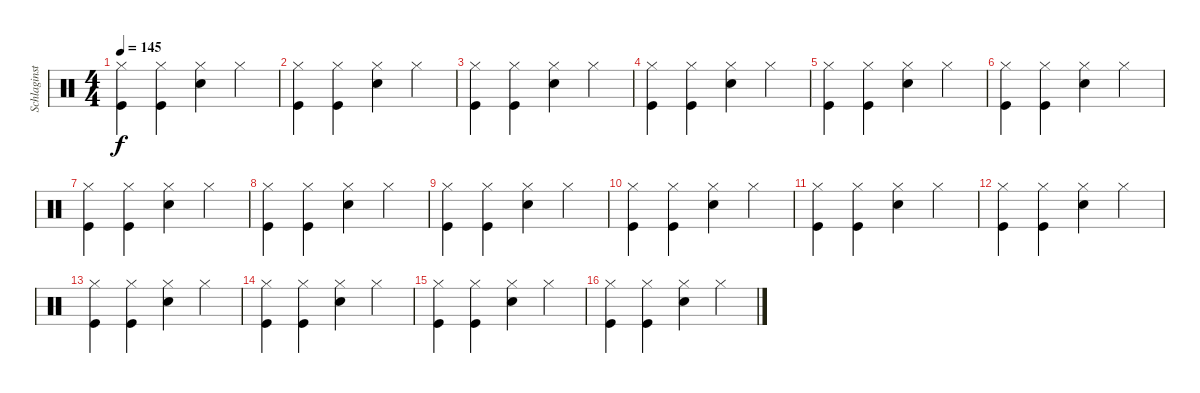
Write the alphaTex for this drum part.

\track ("Schlaginstrumente - Auswahl" "Schlaginst") {instrument percussion}
\staff {score}
\articulation defaults
\ts (4 4)
\tempo 145
\clef neutral
\ks c
("Kick (hit)" "Hi-Hat (closed)").4{dy f} ("Kick (hit)" "Hi-Hat (closed)").4 ("Snare (hit) 2" "Hi-Hat (closed)").4 "Hi-Hat (closed)".4 |
("Kick (hit)" "Hi-Hat (closed)").4 ("Kick (hit)" "Hi-Hat (closed)").4 ("Snare (hit) 2" "Hi-Hat (closed)").4 "Hi-Hat (closed)".4 |
("Kick (hit)" "Hi-Hat (closed)").4 ("Kick (hit)" "Hi-Hat (closed)").4 ("Snare (hit) 2" "Hi-Hat (closed)").4 "Hi-Hat (closed)".4 |
("Kick (hit)" "Hi-Hat (closed)").4 ("Kick (hit)" "Hi-Hat (closed)").4 ("Snare (hit) 2" "Hi-Hat (closed)").4 "Hi-Hat (closed)".4 |
("Kick (hit)" "Hi-Hat (closed)").4 ("Kick (hit)" "Hi-Hat (closed)").4 ("Snare (hit) 2" "Hi-Hat (closed)").4 "Hi-Hat (closed)".4 |
("Kick (hit)" "Hi-Hat (closed)").4 ("Kick (hit)" "Hi-Hat (closed)").4 ("Snare (hit) 2" "Hi-Hat (closed)").4 "Hi-Hat (closed)".4 |
("Kick (hit)" "Hi-Hat (closed)").4 ("Kick (hit)" "Hi-Hat (closed)").4 ("Snare (hit) 2" "Hi-Hat (closed)").4 "Hi-Hat (closed)".4 |
("Kick (hit)" "Hi-Hat (closed)").4 ("Kick (hit)" "Hi-Hat (closed)").4 ("Snare (hit) 2" "Hi-Hat (closed)").4 "Hi-Hat (closed)".4 |
("Kick (hit)" "Hi-Hat (closed)").4 ("Kick (hit)" "Hi-Hat (closed)").4 ("Snare (hit) 2" "Hi-Hat (closed)").4 "Hi-Hat (closed)".4 |
("Kick (hit)" "Hi-Hat (closed)").4 ("Kick (hit)" "Hi-Hat (closed)").4 ("Snare (hit) 2" "Hi-Hat (closed)").4 "Hi-Hat (closed)".4 |
("Kick (hit)" "Hi-Hat (closed)").4 ("Kick (hit)" "Hi-Hat (closed)").4 ("Snare (hit) 2" "Hi-Hat (closed)").4 "Hi-Hat (closed)".4 |
("Kick (hit)" "Hi-Hat (closed)").4 ("Kick (hit)" "Hi-Hat (closed)").4 ("Snare (hit) 2" "Hi-Hat (closed)").4 "Hi-Hat (closed)".4 |
("Kick (hit)" "Hi-Hat (closed)").4 ("Kick (hit)" "Hi-Hat (closed)").4 ("Snare (hit) 2" "Hi-Hat (closed)").4 "Hi-Hat (closed)".4 |
("Kick (hit)" "Hi-Hat (closed)").4 ("Kick (hit)" "Hi-Hat (closed)").4 ("Snare (hit) 2" "Hi-Hat (closed)").4 "Hi-Hat (closed)".4 |
("Kick (hit)" "Hi-Hat (closed)").4 ("Kick (hit)" "Hi-Hat (closed)").4 ("Snare (hit) 2" "Hi-Hat (closed)").4 "Hi-Hat (closed)".4 |
("Kick (hit)" "Hi-Hat (closed)").4 ("Kick (hit)" "Hi-Hat (closed)").4 ("Snare (hit) 2" "Hi-Hat (closed)").4 "Hi-Hat (closed)".4
